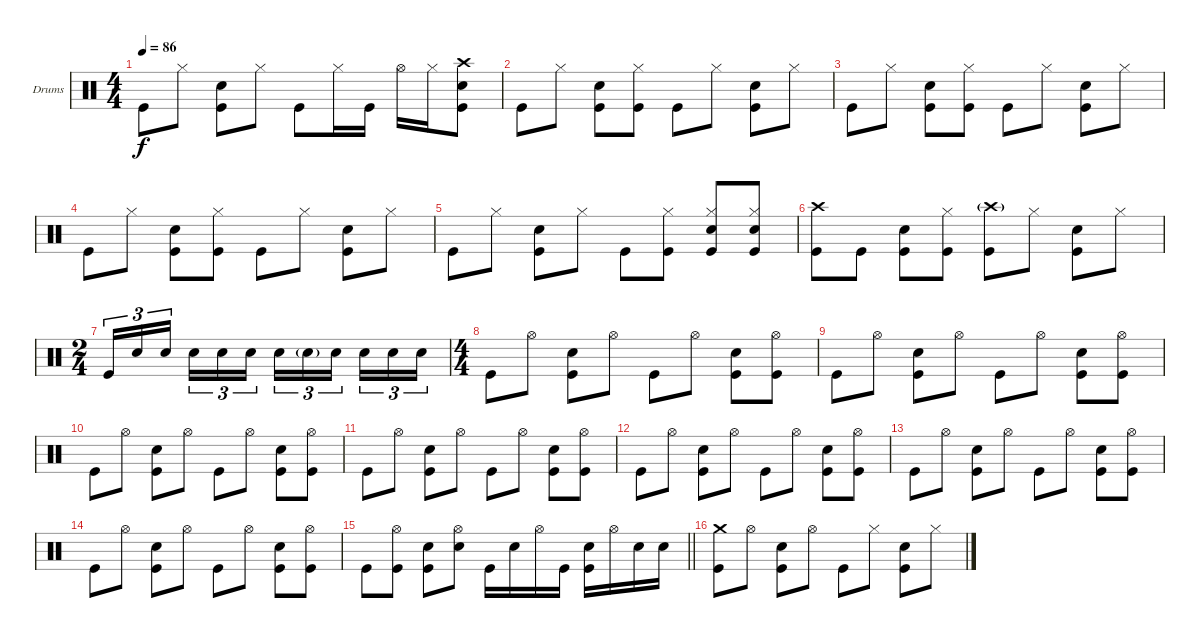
\defaultSystemsLayout 4
\bracketExtendMode groupsimilarinstruments
\firstSystemTrackNameOrientation horizontal
\otherSystemsTrackNameOrientation horizontal
\track ("Drumkit" "Drums") {instrument percussion}
\staff {score}
\articulation defaults
\ts (4 4)
\tempo 86
\clef neutral
\scale
0.333333
\ks c "Kick (hit)".8{dy f} "Hi-Hat (closed)".8
("Snare (hit) 2" "Kick (hit)").8 "Hi-Hat (closed)".8 "Kick (hit)".8 "Hi-Hat (closed)".16 "Kick (hit)".16 "Hi-Hat (open)".16 "Hi-Hat (closed)".16 ("Crash high (hit)" "Snare (hit) 2" "Kick (hit)").8 |
\scale
0.333333 "Kick (hit)".8 "Hi-Hat (closed)".8 ("Snare (hit) 2" "Kick (hit)").8 ("Hi-Hat (closed)" "Kick (hit)").8 "Kick (hit)".8 "Hi-Hat (closed)".8 ("Snare (hit) 2" "Kick (hit)").8 "Hi-Hat (closed)".8 |
\scale
0.333333 "Kick (hit)".8 "Hi-Hat (closed)".8 ("Snare (hit) 2" "Kick (hit)").8 ("Hi-Hat (closed)" "Kick (hit)").8 "Kick (hit)".8 "Hi-Hat (closed)".8 ("Snare (hit) 2" "Kick (hit)").8 "Hi-Hat (closed)".8 |
\scale
0.333333 "Kick (hit)".8 "Hi-Hat (closed)".8 ("Snare (hit) 2" "Kick (hit)").8 ("Hi-Hat (closed)" "Kick (hit)").8 "Kick (hit)".8 "Hi-Hat (closed)".8 ("Snare (hit) 2" "Kick (hit)").8 "Hi-Hat (closed)".8 |
\scale
0.263889 "Kick (hit)".8 "Hi-Hat (closed)".8 ("Snare (hit) 2" "Kick (hit)").8 "Hi-Hat (closed)".8 "Kick (hit)".8 ("Hi-Hat (closed)" "Kick (hit)").8 ("Hi-Hat (closed)" "Snare (hit) 2" "Kick (hit)").8 ("Hi-Hat (closed)" "Snare (hit) 2" "Kick (hit)").8 |
\scale
0.263889 ("Crash high (hit)" "Kick (hit)").8 "Kick (hit)".8 ("Snare (hit) 2" "Kick (hit)").8 ("Hi-Hat (closed)" "Kick (hit)").8 ("Crash high (hit)"{g} "Kick (hit)").8 "Hi-Hat (closed)".8 ("Snare (hit) 2" "Kick (hit)").8 "Hi-Hat (closed)".8 |
\ts (2 4)
\scale
0.472222 "Kick (hit)".16{tu (3 2)} "Snare (hit) 2".16{tu (3 2)} "Snare (hit) 2".16{tu (3 2)} "Snare (hit) 2".16{tu (3 2)} "Snare (hit) 2".16{tu (3 2)} "Snare (hit) 2".16{tu (3 2)} "Snare (hit) 2".16{tu (3 2)} "Snare (hit) 2"{g}.16{tu (3 2)} "Snare (hit) 2".16{tu (3 2)} "Snare (hit) 2".16{tu (3 2)} "Snare (hit) 2".16{tu (3 2)} "Snare (hit) 2".16{tu (3 2)} |
\ts (4 4)
\scale
0.472222 "Kick (hit)".8 "Hi-Hat (open)".8 ("Snare (hit) 2" "Kick (hit)").8 "Hi-Hat (open)".8 "Kick (hit)".8 "Hi-Hat (open)".8 ("Snare (hit) 2" "Kick (hit)").8 ("Hi-Hat (open)" "Kick (hit)").8 |
\scale
0.263889 "Kick (hit)".8 "Hi-Hat (open)".8 ("Snare (hit) 2" "Kick (hit)").8 "Hi-Hat (open)".8 "Kick (hit)".8 "Hi-Hat (open)".8 ("Snare (hit) 2" "Kick (hit)").8 ("Hi-Hat (open)" "Kick (hit)").8 |
\scale
0.263889 "Kick (hit)".8 "Hi-Hat (open)".8 ("Snare (hit) 2" "Kick (hit)").8 "Hi-Hat (open)".8 "Kick (hit)".8 "Hi-Hat (open)".8 ("Snare (hit) 2" "Kick (hit)").8 ("Hi-Hat (open)" "Kick (hit)").8 |
\scale
0.333333 "Kick (hit)".8 "Hi-Hat (open)".8 ("Snare (hit) 2" "Kick (hit)").8 "Hi-Hat (open)".8 "Kick (hit)".8 "Hi-Hat (open)".8 ("Snare (hit) 2" "Kick (hit)").8 ("Hi-Hat (open)" "Kick (hit)").8 |
\scale
0.333333 "Kick (hit)".8 "Hi-Hat (open)".8 ("Snare (hit) 2" "Kick (hit)").8 "Hi-Hat (open)".8 "Kick (hit)".8 "Hi-Hat (open)".8 ("Snare (hit) 2" "Kick (hit)").8 ("Hi-Hat (open)" "Kick (hit)").8 |
\scale
0.333333 "Kick (hit)".8 "Hi-Hat (open)".8 ("Snare (hit) 2" "Kick (hit)").8 "Hi-Hat (open)".8 "Kick (hit)".8 "Hi-Hat (open)".8 ("Snare (hit) 2" "Kick (hit)").8 ("Hi-Hat (open)" "Kick (hit)").8 |
\scale
0.333333 "Kick (hit)".8 "Hi-Hat (open)".8 ("Snare (hit) 2" "Kick (hit)").8 "Hi-Hat (open)".8 "Kick (hit)".8 "Hi-Hat (open)".8 ("Snare (hit) 2" "Kick (hit)").8 ("Hi-Hat (open)" "Kick (hit)").8 |
\scale
0.333333
\barLineRight lightlight "Kick (hit)".8
("Hi-Hat (open)" "Kick (hit)").8 ("Snare (hit) 2" "Kick (hit)").8 ("Hi-Hat (open)" "Snare (hit) 2").8 "Kick (hit)".16 "Snare (hit) 2".16 "Hi-Hat (open)".16 "Kick (hit)".16 ("Snare (hit) 2" "Kick (hit)").16 "Hi-Hat (open)".16 "Snare (hit) 2".16 "Snare (hit) 2".16 |
\scale
0.333333 ("Crash medium (hit)" "Kick (hit)").8 "Hi-Hat (open)".8 ("Snare (hit) 2" "Kick (hit)").8 "Hi-Hat (open)".8 "Kick (hit)".8 "Hi-Hat (closed)".8 ("Snare (hit) 2" "Kick (hit)").8 "Hi-Hat (closed)".8
